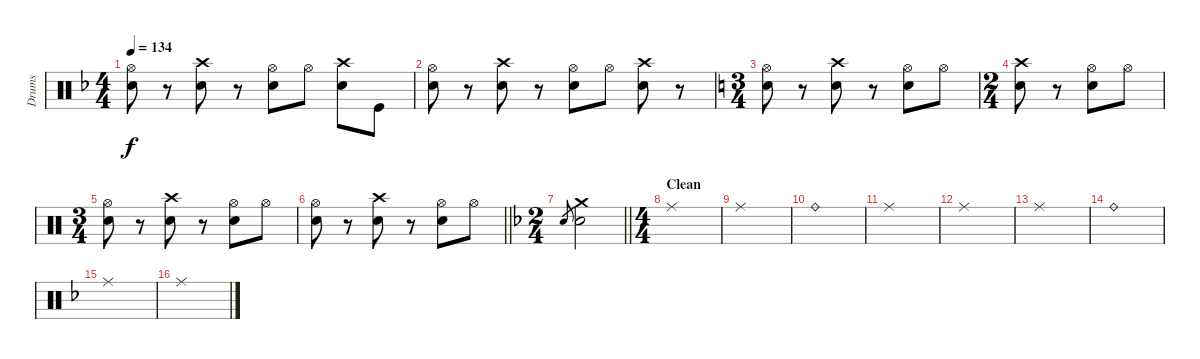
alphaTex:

\track ("Drums" "Drums") {instrument percussion}
\staff {score}
\articulation defaults
\ts (4 4)
\tempo 134
\clef neutral
\ks f
("Snare (hit) 2" "Hi-Hat (open)").8{dy f} r.8 ("Electric Snare (hit)" "Crash high (hit)").8 r.8 ("Snare (hit) 2" "Hi-Hat (open)").8 "Hi-Hat (open)".8 ("Electric Snare (hit)" "Crash high (hit)").8 "Kick (hit)".8 |
("Snare (hit) 2" "Hi-Hat (open)").8 r.8 ("Electric Snare (hit)" "Crash high (hit)").8 r.8 ("Snare (hit) 2" "Hi-Hat (open)").8 "Hi-Hat (open)".8 ("Electric Snare (hit)" "Crash high (hit)").8 r.8 |
\ts (3 4)
\ks c
("Snare (hit) 2" "Hi-Hat (open)").8 r.8 ("Electric Snare (hit)" "Crash high (hit)").8 r.8 ("Snare (hit) 2" "Hi-Hat (open)").8 "Hi-Hat (open)".8 |
\ts (2 4)
("Electric Snare (hit)" "Crash high (hit)").8 r.8 ("Snare (hit) 2" "Hi-Hat (open)").8 "Hi-Hat (open)".8 |
\ts (3 4)
("Snare (hit) 2" "Hi-Hat (open)").8 r.8 ("Electric Snare (hit)" "Crash high (hit)").8 r.8 ("Snare (hit) 2" "Hi-Hat (open)").8 "Hi-Hat (open)".8 |
\barLineRight lightlight
("Snare (hit) 2" "Hi-Hat (open)").8 r.8 ("Electric Snare (hit)" "Crash high (hit)").8 r.8 ("Snare (hit) 2" "Hi-Hat (open)").8 "Hi-Hat (open)".8 |
\ts (2 4)
\barLineRight lightlight
\ks f "Snare (hit) 2".8{gr}
("Snare (hit) 2" "Crash medium (hit)").2 |
\ts (4 4)
\section ("" "Clean")
"Ride (middle)".1 |
"Ride (middle)".1 |
"Ride (bell)".1 |
"Ride (middle)".1 |
"Ride (middle)".1 |
"Ride (middle)".1 |
"Ride (bell)".1 |
"Ride (middle)".1 |
"Ride (middle)".1
